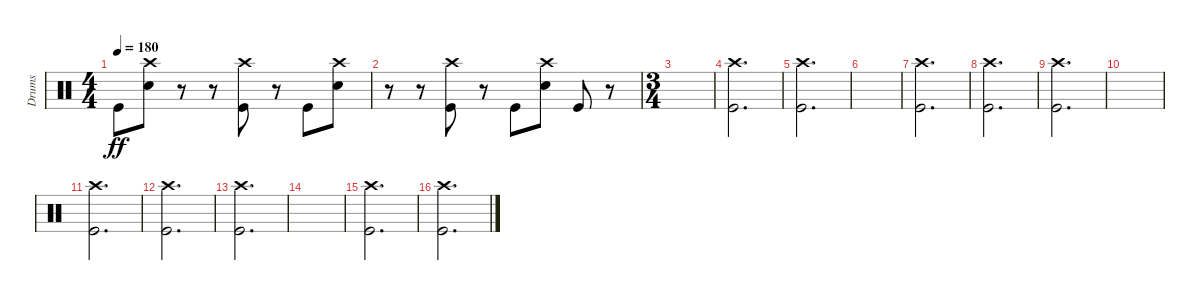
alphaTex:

\track ("Drums" "Drums") {instrument percussion}
\staff {score}
\articulation defaults
\ts (4 4)
\tempo 180
\clef neutral
\ks c "Kick (hit)".8{dy ff}
("Crash high (hit)" "Snare (hit) 2").8 r.8 r.8 ("Crash high (hit)" "Kick (hit)").8 r.8 "Kick (hit)".8 ("Crash high (hit)" "Snare (hit) 2").8 |
r.8 r.8 ("Crash high (hit)" "Kick (hit)").8 r.8 "Kick (hit)".8 ("Crash high (hit)" "Snare (hit) 2").8 "Kick (hit)".8 r.8 |
\ts (3 4)
|
("Crash high (hit)" "Kick (hit)").2{d} |
("Crash high (hit)" "Kick (hit)").2{d} |
|
("Crash high (hit)" "Kick (hit)").2{d} |
("Crash high (hit)" "Kick (hit)").2{d} |
("Crash high (hit)" "Kick (hit)").2{d} |
|
("Crash high (hit)" "Kick (hit)").2{d} |
("Crash high (hit)" "Kick (hit)").2{d} |
("Crash high (hit)" "Kick (hit)").2{d} |
|
("Crash high (hit)" "Kick (hit)").2{d} |
("Crash high (hit)" "Kick (hit)").2{d}
